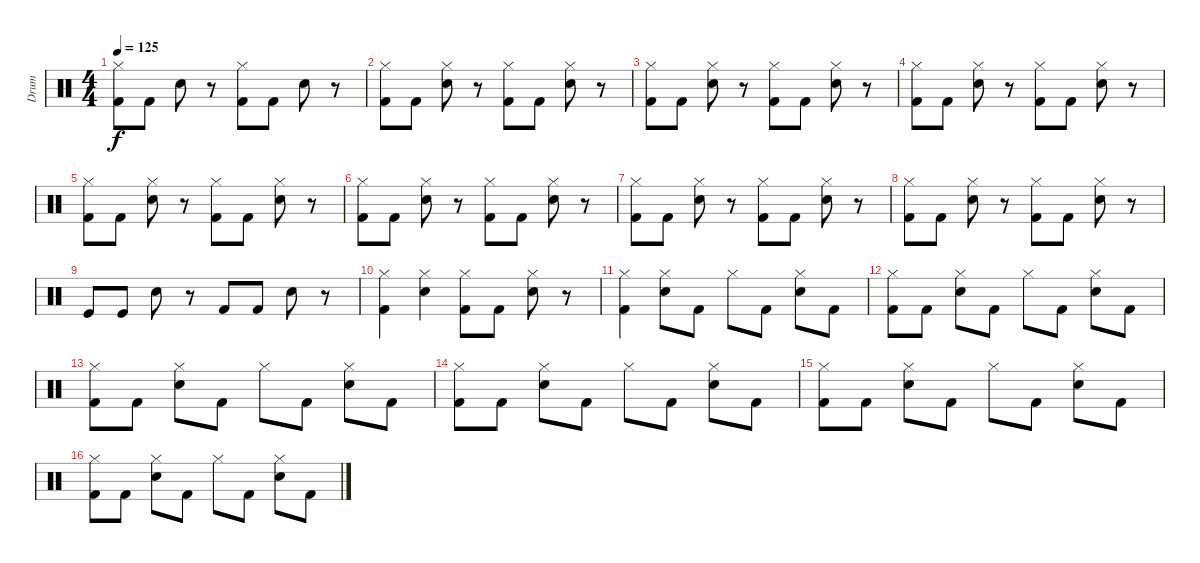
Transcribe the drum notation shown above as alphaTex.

\track ("Drum" "Drum") {instrument percussion}
\staff {score}
\articulation defaults
\ts (4 4)
\tempo 125
\clef neutral
\ks c
("Hi-Hat (closed)" "Kick (hit) 2").8{dy f} "Kick (hit) 2".8 "Snare (hit) 2".8 r.8 ("Hi-Hat (closed)" "Kick (hit) 2").8 "Kick (hit) 2".8 "Snare (hit) 2".8 r.8 |
("Hi-Hat (closed)" "Kick (hit) 2").8 "Kick (hit) 2".8 ("Hi-Hat (closed)" "Snare (hit) 2").8 r.8 ("Hi-Hat (closed)" "Kick (hit) 2").8 "Kick (hit) 2".8 ("Hi-Hat (closed)" "Snare (hit) 2").8 r.8 |
("Hi-Hat (closed)" "Kick (hit) 2").8 "Kick (hit) 2".8 ("Hi-Hat (closed)" "Snare (hit) 2").8 r.8 ("Hi-Hat (closed)" "Kick (hit) 2").8 "Kick (hit) 2".8 ("Hi-Hat (closed)" "Snare (hit) 2").8 r.8 |
("Hi-Hat (closed)" "Kick (hit) 2").8 "Kick (hit) 2".8 ("Hi-Hat (closed)" "Snare (hit) 2").8 r.8 ("Hi-Hat (closed)" "Kick (hit) 2").8 "Kick (hit) 2".8 ("Hi-Hat (closed)" "Snare (hit) 2").8 r.8 |
("Hi-Hat (closed)" "Kick (hit) 2").8 "Kick (hit) 2".8 ("Hi-Hat (closed)" "Snare (hit) 2").8 r.8 ("Hi-Hat (closed)" "Kick (hit) 2").8 "Kick (hit) 2".8 ("Hi-Hat (closed)" "Snare (hit) 2").8 r.8 |
("Hi-Hat (closed)" "Kick (hit) 2").8 "Kick (hit) 2".8 ("Hi-Hat (closed)" "Snare (hit) 2").8 r.8 ("Hi-Hat (closed)" "Kick (hit) 2").8 "Kick (hit) 2".8 ("Hi-Hat (closed)" "Snare (hit) 2").8 r.8 |
("Hi-Hat (closed)" "Kick (hit) 2").8 "Kick (hit) 2".8 ("Hi-Hat (closed)" "Snare (hit) 2").8 r.8 ("Hi-Hat (closed)" "Kick (hit) 2").8 "Kick (hit) 2".8 ("Hi-Hat (closed)" "Snare (hit) 2").8 r.8 |
("Hi-Hat (closed)" "Kick (hit) 2").8 "Kick (hit) 2".8 ("Hi-Hat (closed)" "Snare (hit) 2").8 r.8 ("Hi-Hat (closed)" "Kick (hit) 2").8 "Kick (hit) 2".8 ("Hi-Hat (closed)" "Snare (hit) 2").8 r.8 |
"Kick (hit)".8 "Kick (hit)".8 "Snare (hit) 2".8 r.8 "Kick (hit) 2".8 "Kick (hit) 2".8 "Electric Snare (hit)".8 r.8 |
("Hi-Hat (closed)" "Kick (hit) 2").4 ("Hi-Hat (closed)" "Snare (hit) 2").4 ("Hi-Hat (closed)" "Kick (hit) 2").8 "Kick (hit) 2".8 ("Hi-Hat (closed)" "Snare (hit) 2").8 r.8 |
("Hi-Hat (closed)" "Kick (hit) 2").4 ("Hi-Hat (closed)" "Snare (hit) 2").8 "Kick (hit) 2".8 "Hi-Hat (closed)".8 "Kick (hit) 2".8 ("Hi-Hat (closed)" "Snare (hit) 2").8 "Kick (hit) 2".8 |
("Hi-Hat (closed)" "Kick (hit) 2").8 "Kick (hit) 2".8 ("Hi-Hat (closed)" "Snare (hit) 2").8 "Kick (hit) 2".8 "Hi-Hat (closed)".8 "Kick (hit) 2".8 ("Hi-Hat (closed)" "Snare (hit) 2").8 "Kick (hit) 2".8 |
("Hi-Hat (closed)" "Kick (hit) 2").8 "Kick (hit) 2".8 ("Hi-Hat (closed)" "Snare (hit) 2").8 "Kick (hit) 2".8 "Hi-Hat (closed)".8 "Kick (hit) 2".8 ("Hi-Hat (closed)" "Snare (hit) 2").8 "Kick (hit) 2".8 |
("Hi-Hat (closed)" "Kick (hit) 2").8 "Kick (hit) 2".8 ("Hi-Hat (closed)" "Snare (hit) 2").8 "Kick (hit) 2".8 "Hi-Hat (closed)".8 "Kick (hit) 2".8 ("Hi-Hat (closed)" "Snare (hit) 2").8 "Kick (hit) 2".8 |
("Hi-Hat (closed)" "Kick (hit) 2").8 "Kick (hit) 2".8 ("Hi-Hat (closed)" "Snare (hit) 2").8 "Kick (hit) 2".8 "Hi-Hat (closed)".8 "Kick (hit) 2".8 ("Hi-Hat (closed)" "Snare (hit) 2").8 "Kick (hit) 2".8 |
("Hi-Hat (closed)" "Kick (hit) 2").8 "Kick (hit) 2".8 ("Hi-Hat (closed)" "Snare (hit) 2").8 "Kick (hit) 2".8 "Hi-Hat (closed)".8 "Kick (hit) 2".8 ("Hi-Hat (closed)" "Snare (hit) 2").8 "Kick (hit) 2".8
